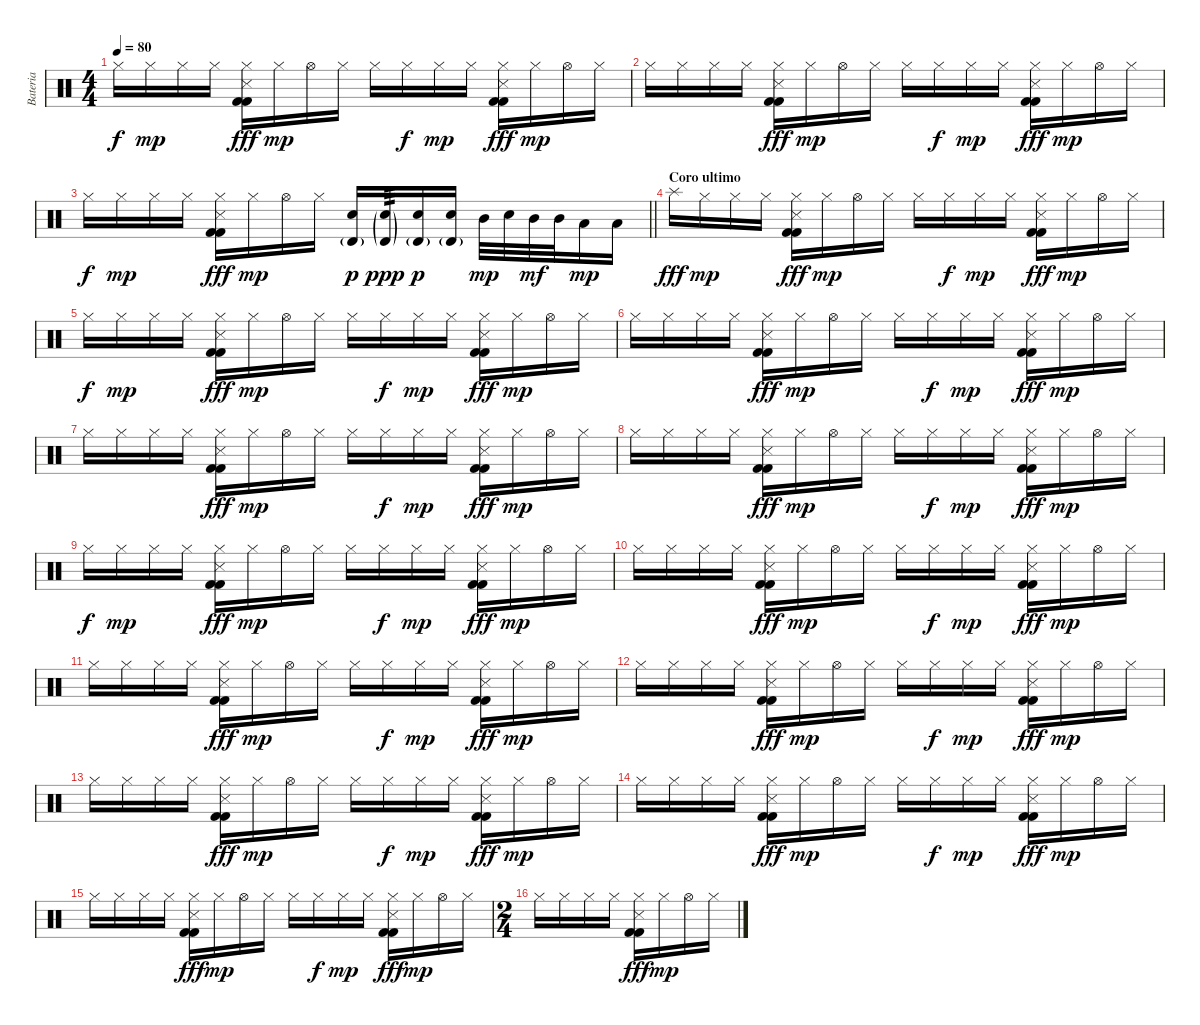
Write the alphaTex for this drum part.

\track ("Bateria" "Bateria") {instrument percussion}
\staff {score}
\articulation defaults
\ts (4 4)
\tempo 80
\clef neutral
\ks c "Hi-Hat (closed)".16{dy f} "Hi-Hat (closed)".16{dy mp} "Hi-Hat (closed)".16 "Hi-Hat (closed)".16
("Hi-Hat (closed)" "Kick (hit) 2" "Snare (side stick) 3" "Kick (hit) 2").16{dy fff} "Hi-Hat (closed)".16{dy mp} "Hi-Hat (open)".16 "Hi-Hat (closed)".16 "Hi-Hat (closed)".16 "Hi-Hat (closed)".16{dy f} "Hi-Hat (closed)".16{dy mp} "Hi-Hat (closed)".16 ("Hi-Hat (closed)" "Snare (side stick) 3" "Kick (hit) 2" "Kick (hit) 2").16{dy fff} "Hi-Hat (closed)".16{dy mp} "Hi-Hat (open)".16 "Hi-Hat (closed)".16 |
"Hi-Hat (closed)".16 "Hi-Hat (closed)".16 "Hi-Hat (closed)".16 "Hi-Hat (closed)".16 ("Hi-Hat (closed)" "Kick (hit) 2" "Snare (side stick) 3" "Kick (hit) 2").16{dy fff} "Hi-Hat (closed)".16{dy mp} "Hi-Hat (open)".16 "Hi-Hat (closed)".16 "Hi-Hat (closed)".16 "Hi-Hat (closed)".16{dy f} "Hi-Hat (closed)".16{dy mp} "Hi-Hat (closed)".16 ("Hi-Hat (closed)" "Snare (side stick) 3" "Kick (hit) 2" "Kick (hit) 2").16{dy fff} "Hi-Hat (closed)".16{dy mp} "Hi-Hat (open)".16 "Hi-Hat (closed)".16 |
\barLineRight lightlight "Hi-Hat (closed)".16{dy f} "Hi-Hat (closed)".16{dy mp} "Hi-Hat (closed)".16 "Hi-Hat (closed)".16
("Hi-Hat (closed)" "Kick (hit) 2" "Snare (side stick) 3" "Kick (hit) 2").16{dy fff} "Hi-Hat (closed)".16{dy mp} "Hi-Hat (open)".16 "Hi-Hat (closed)".16 ("Electric Snare (hit)" "Timbale high (hit)"{g}).16{dy p} ("Electric Snare (hit)"{g} "Timbale high (hit)"{g}).16{tp 3 dy ppp} ("Electric Snare (hit)" "Timbale high (hit)"{g}).16{dy p} ("Electric Snare (hit)" "Timbale high (hit)"{g}).16 "Mid Tom (hit)".32{dy mp} "Electric Snare (hit)".32 "Mid Tom (hit)".32{dy mf} "Mid Tom (hit)".32 "Low Tom (hit)".16{dy mp} "Low Tom (hit)".16 |
\section ("" "Coro ultimo")
"Splash (hit)".16{dy fff} "Hi-Hat (closed)".16{dy mp} "Hi-Hat (closed)".16 "Hi-Hat (closed)".16 ("Hi-Hat (closed)" "Kick (hit) 2" "Snare (side stick) 3" "Kick (hit) 2").16{dy fff} "Hi-Hat (closed)".16{dy mp} "Hi-Hat (open)".16 "Hi-Hat (closed)".16 "Hi-Hat (closed)".16 "Hi-Hat (closed)".16{dy f} "Hi-Hat (closed)".16{dy mp} "Hi-Hat (closed)".16 ("Hi-Hat (closed)" "Snare (side stick) 3" "Kick (hit) 2" "Kick (hit) 2").16{dy fff} "Hi-Hat (closed)".16{dy mp} "Hi-Hat (open)".16 "Hi-Hat (closed)".16 |
"Hi-Hat (closed)".16{dy f} "Hi-Hat (closed)".16{dy mp} "Hi-Hat (closed)".16 "Hi-Hat (closed)".16 ("Hi-Hat (closed)" "Kick (hit) 2" "Snare (side stick) 3" "Kick (hit) 2").16{dy fff} "Hi-Hat (closed)".16{dy mp} "Hi-Hat (open)".16 "Hi-Hat (closed)".16 "Hi-Hat (closed)".16 "Hi-Hat (closed)".16{dy f} "Hi-Hat (closed)".16{dy mp} "Hi-Hat (closed)".16 ("Hi-Hat (closed)" "Snare (side stick) 3" "Kick (hit) 2" "Kick (hit) 2").16{dy fff} "Hi-Hat (closed)".16{dy mp} "Hi-Hat (open)".16 "Hi-Hat (closed)".16 |
"Hi-Hat (closed)".16 "Hi-Hat (closed)".16 "Hi-Hat (closed)".16 "Hi-Hat (closed)".16 ("Hi-Hat (closed)" "Kick (hit) 2" "Snare (side stick) 3" "Kick (hit) 2").16{dy fff} "Hi-Hat (closed)".16{dy mp} "Hi-Hat (open)".16 "Hi-Hat (closed)".16 "Hi-Hat (closed)".16 "Hi-Hat (closed)".16{dy f} "Hi-Hat (closed)".16{dy mp} "Hi-Hat (closed)".16 ("Hi-Hat (closed)" "Snare (side stick) 3" "Kick (hit) 2" "Kick (hit) 2").16{dy fff} "Hi-Hat (closed)".16{dy mp} "Hi-Hat (open)".16 "Hi-Hat (closed)".16 |
"Hi-Hat (closed)".16 "Hi-Hat (closed)".16 "Hi-Hat (closed)".16 "Hi-Hat (closed)".16 ("Hi-Hat (closed)" "Kick (hit) 2" "Snare (side stick) 3" "Kick (hit) 2").16{dy fff} "Hi-Hat (closed)".16{dy mp} "Hi-Hat (open)".16 "Hi-Hat (closed)".16 "Hi-Hat (closed)".16 "Hi-Hat (closed)".16{dy f} "Hi-Hat (closed)".16{dy mp} "Hi-Hat (closed)".16 ("Hi-Hat (closed)" "Snare (side stick) 3" "Kick (hit) 2" "Kick (hit) 2").16{dy fff} "Hi-Hat (closed)".16{dy mp} "Hi-Hat (open)".16 "Hi-Hat (closed)".16 |
"Hi-Hat (closed)".16 "Hi-Hat (closed)".16 "Hi-Hat (closed)".16 "Hi-Hat (closed)".16 ("Hi-Hat (closed)" "Kick (hit) 2" "Snare (side stick) 3" "Kick (hit) 2").16{dy fff} "Hi-Hat (closed)".16{dy mp} "Hi-Hat (open)".16 "Hi-Hat (closed)".16 "Hi-Hat (closed)".16 "Hi-Hat (closed)".16{dy f} "Hi-Hat (closed)".16{dy mp} "Hi-Hat (closed)".16 ("Hi-Hat (closed)" "Snare (side stick) 3" "Kick (hit) 2" "Kick (hit) 2").16{dy fff} "Hi-Hat (closed)".16{dy mp} "Hi-Hat (open)".16 "Hi-Hat (closed)".16 |
"Hi-Hat (closed)".16{dy f} "Hi-Hat (closed)".16{dy mp} "Hi-Hat (closed)".16 "Hi-Hat (closed)".16 ("Hi-Hat (closed)" "Kick (hit) 2" "Snare (side stick) 3" "Kick (hit) 2").16{dy fff} "Hi-Hat (closed)".16{dy mp} "Hi-Hat (open)".16 "Hi-Hat (closed)".16 "Hi-Hat (closed)".16 "Hi-Hat (closed)".16{dy f} "Hi-Hat (closed)".16{dy mp} "Hi-Hat (closed)".16 ("Hi-Hat (closed)" "Snare (side stick) 3" "Kick (hit) 2" "Kick (hit) 2").16{dy fff} "Hi-Hat (closed)".16{dy mp} "Hi-Hat (open)".16 "Hi-Hat (closed)".16 |
"Hi-Hat (closed)".16 "Hi-Hat (closed)".16 "Hi-Hat (closed)".16 "Hi-Hat (closed)".16 ("Hi-Hat (closed)" "Kick (hit) 2" "Snare (side stick) 3" "Kick (hit) 2").16{dy fff} "Hi-Hat (closed)".16{dy mp} "Hi-Hat (open)".16 "Hi-Hat (closed)".16 "Hi-Hat (closed)".16 "Hi-Hat (closed)".16{dy f} "Hi-Hat (closed)".16{dy mp} "Hi-Hat (closed)".16 ("Hi-Hat (closed)" "Snare (side stick) 3" "Kick (hit) 2" "Kick (hit) 2").16{dy fff} "Hi-Hat (closed)".16{dy mp} "Hi-Hat (open)".16 "Hi-Hat (closed)".16 |
"Hi-Hat (closed)".16 "Hi-Hat (closed)".16 "Hi-Hat (closed)".16 "Hi-Hat (closed)".16 ("Hi-Hat (closed)" "Kick (hit) 2" "Snare (side stick) 3" "Kick (hit) 2").16{dy fff} "Hi-Hat (closed)".16{dy mp} "Hi-Hat (open)".16 "Hi-Hat (closed)".16 "Hi-Hat (closed)".16 "Hi-Hat (closed)".16{dy f} "Hi-Hat (closed)".16{dy mp} "Hi-Hat (closed)".16 ("Hi-Hat (closed)" "Snare (side stick) 3" "Kick (hit) 2" "Kick (hit) 2").16{dy fff} "Hi-Hat (closed)".16{dy mp} "Hi-Hat (open)".16 "Hi-Hat (closed)".16 |
"Hi-Hat (closed)".16 "Hi-Hat (closed)".16 "Hi-Hat (closed)".16 "Hi-Hat (closed)".16 ("Hi-Hat (closed)" "Kick (hit) 2" "Snare (side stick) 3" "Kick (hit) 2").16{dy fff} "Hi-Hat (closed)".16{dy mp} "Hi-Hat (open)".16 "Hi-Hat (closed)".16 "Hi-Hat (closed)".16 "Hi-Hat (closed)".16{dy f} "Hi-Hat (closed)".16{dy mp} "Hi-Hat (closed)".16 ("Hi-Hat (closed)" "Snare (side stick) 3" "Kick (hit) 2" "Kick (hit) 2").16{dy fff} "Hi-Hat (closed)".16{dy mp} "Hi-Hat (open)".16 "Hi-Hat (closed)".16 |
"Hi-Hat (closed)".16 "Hi-Hat (closed)".16 "Hi-Hat (closed)".16 "Hi-Hat (closed)".16 ("Hi-Hat (closed)" "Kick (hit) 2" "Snare (side stick) 3" "Kick (hit) 2").16{dy fff} "Hi-Hat (closed)".16{dy mp} "Hi-Hat (open)".16 "Hi-Hat (closed)".16 "Hi-Hat (closed)".16 "Hi-Hat (closed)".16{dy f} "Hi-Hat (closed)".16{dy mp} "Hi-Hat (closed)".16 ("Hi-Hat (closed)" "Snare (side stick) 3" "Kick (hit) 2" "Kick (hit) 2").16{dy fff} "Hi-Hat (closed)".16{dy mp} "Hi-Hat (open)".16 "Hi-Hat (closed)".16 |
"Hi-Hat (closed)".16 "Hi-Hat (closed)".16 "Hi-Hat (closed)".16 "Hi-Hat (closed)".16 ("Hi-Hat (closed)" "Kick (hit) 2" "Snare (side stick) 3" "Kick (hit) 2").16{dy fff} "Hi-Hat (closed)".16{dy mp} "Hi-Hat (open)".16 "Hi-Hat (closed)".16 "Hi-Hat (closed)".16 "Hi-Hat (closed)".16{dy f} "Hi-Hat (closed)".16{dy mp} "Hi-Hat (closed)".16 ("Hi-Hat (closed)" "Snare (side stick) 3" "Kick (hit) 2" "Kick (hit) 2").16{dy fff} "Hi-Hat (closed)".16{dy mp} "Hi-Hat (open)".16 "Hi-Hat (closed)".16 |
"Hi-Hat (closed)".16 "Hi-Hat (closed)".16 "Hi-Hat (closed)".16 "Hi-Hat (closed)".16 ("Hi-Hat (closed)" "Kick (hit) 2" "Snare (side stick) 3" "Kick (hit) 2").16{dy fff} "Hi-Hat (closed)".16{dy mp} "Hi-Hat (open)".16 "Hi-Hat (closed)".16 "Hi-Hat (closed)".16 "Hi-Hat (closed)".16{dy f} "Hi-Hat (closed)".16{dy mp} "Hi-Hat (closed)".16 ("Hi-Hat (closed)" "Snare (side stick) 3" "Kick (hit) 2" "Kick (hit) 2").16{dy fff} "Hi-Hat (closed)".16{dy mp} "Hi-Hat (open)".16 "Hi-Hat (closed)".16 |
\ts (2 4)
"Hi-Hat (closed)".16 "Hi-Hat (closed)".16 "Hi-Hat (closed)".16 "Hi-Hat (closed)".16 ("Hi-Hat (closed)" "Kick (hit) 2" "Snare (side stick) 3" "Kick (hit) 2").16{dy fff} "Hi-Hat (closed)".16{dy mp} "Hi-Hat (open)".16 "Hi-Hat (closed)".16
